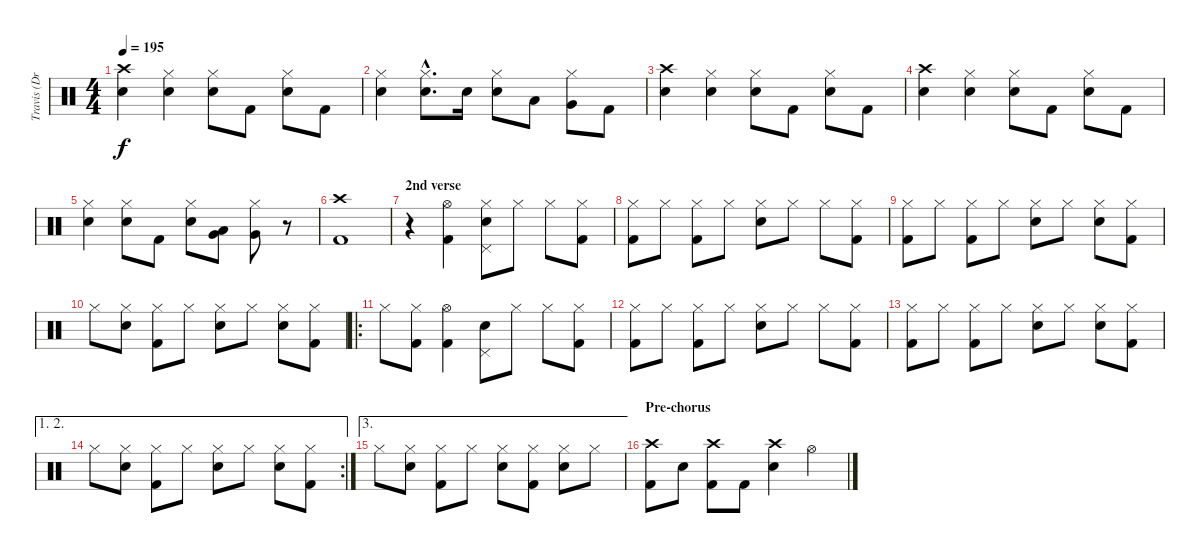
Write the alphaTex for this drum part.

\track ("Travis (Drums)" "Travis (Dr") {instrument percussion}
\staff {score}
\articulation defaults
\ts (4 4)
\tempo 195
\clef neutral
\ks c
("Crash high (hit)" "Electric Snare (hit)").4{dy f} ("Hi-Hat (closed)" "Electric Snare (hit)").4 ("Hi-Hat (closed)" "Electric Snare (hit)").8 "Kick (hit) 2".8 ("Hi-Hat (closed)" "Electric Snare (hit)").8 "Kick (hit) 2".8 |
("Hi-Hat (closed)" "Electric Snare (hit)").4 ("Hi-Hat (closed)"{hac} "Electric Snare (hit)"{hac}).8{d} "Electric Snare (hit)".16 ("Hi-Hat (closed)" "Electric Snare (hit)").8 "Low Tom (hit)".8 ("Very Low Tom (hit)" "Hi-Hat (closed)").8 "Kick (hit) 2".8 |
("Crash high (hit)" "Electric Snare (hit)").4 ("Hi-Hat (closed)" "Electric Snare (hit)").4 ("Hi-Hat (closed)" "Electric Snare (hit)").8 "Kick (hit) 2".8 ("Hi-Hat (closed)" "Electric Snare (hit)").8 "Kick (hit) 2".8 |
("Crash high (hit)" "Electric Snare (hit)").4 ("Hi-Hat (closed)" "Electric Snare (hit)").4 ("Hi-Hat (closed)" "Electric Snare (hit)").8 "Kick (hit) 2".8 ("Hi-Hat (closed)" "Electric Snare (hit)").8 "Kick (hit) 2".8 |
("Hi-Hat (closed)" "Electric Snare (hit)").4 ("Hi-Hat (closed)" "Electric Snare (hit)").8 "Kick (hit) 2".8 ("Hi-Hat (closed)" "Electric Snare (hit)").8 ("Low Tom (hit)" "Very Low Tom (hit)").8 ("Very Low Tom (hit)" "Hi-Hat (closed)").8 r.8 |
("Crash high (hit)" "Kick (hit) 2").1 |
\section ("" "2nd verse")
r.4 ("Hi-Hat (open)" "Kick (hit) 2").4 ("Pedal Hi-Hat (hit)" "Hi-Hat (closed)" "Electric Snare (hit)").8 "Hi-Hat (closed)".8 "Hi-Hat (closed)".8 ("Hi-Hat (closed)" "Kick (hit) 2").8 |
("Hi-Hat (closed)" "Kick (hit) 2").8 "Hi-Hat (closed)".8 ("Hi-Hat (closed)" "Kick (hit) 2").8 "Hi-Hat (closed)".8 ("Hi-Hat (closed)" "Electric Snare (hit)").8 "Hi-Hat (closed)".8 "Hi-Hat (closed)".8 ("Hi-Hat (closed)" "Kick (hit) 2").8 |
("Hi-Hat (closed)" "Kick (hit) 2").8 "Hi-Hat (closed)".8 ("Hi-Hat (closed)" "Kick (hit) 2").8 "Hi-Hat (closed)".8 ("Hi-Hat (closed)" "Electric Snare (hit)").8 "Hi-Hat (closed)".8 ("Hi-Hat (closed)" "Electric Snare (hit)").8 ("Hi-Hat (closed)" "Kick (hit) 2").8 |
"Hi-Hat (closed)".8 ("Hi-Hat (closed)" "Electric Snare (hit)").8 ("Hi-Hat (closed)" "Kick (hit) 2").8 "Hi-Hat (closed)".8 ("Hi-Hat (closed)" "Electric Snare (hit)").8 "Hi-Hat (closed)".8 ("Hi-Hat (closed)" "Electric Snare (hit)").8 ("Hi-Hat (closed)" "Kick (hit) 2").8 |
\ro "Hi-Hat (closed)".8
("Hi-Hat (closed)" "Kick (hit) 2").8 ("Hi-Hat (open)" "Kick (hit) 2").4 ("Pedal Hi-Hat (hit)" "Electric Snare (hit)").8 "Hi-Hat (closed)".8 "Hi-Hat (closed)".8 ("Hi-Hat (closed)" "Kick (hit) 2").8 |
("Hi-Hat (closed)" "Kick (hit) 2").8 "Hi-Hat (closed)".8 ("Hi-Hat (closed)" "Kick (hit) 2").8 "Hi-Hat (closed)".8 ("Hi-Hat (closed)" "Electric Snare (hit)").8 "Hi-Hat (closed)".8 "Hi-Hat (closed)".8 ("Hi-Hat (closed)" "Kick (hit) 2").8 |
("Hi-Hat (closed)" "Kick (hit) 2").8 "Hi-Hat (closed)".8 ("Hi-Hat (closed)" "Kick (hit) 2").8 "Hi-Hat (closed)".8 ("Hi-Hat (closed)" "Electric Snare (hit)").8 "Hi-Hat (closed)".8 ("Hi-Hat (closed)" "Electric Snare (hit)").8 ("Hi-Hat (closed)" "Kick (hit) 2").8 |
\ae (1 2)
\rc 2 "Hi-Hat (closed)".8
("Hi-Hat (closed)" "Electric Snare (hit)").8 ("Hi-Hat (closed)" "Kick (hit) 2").8 "Hi-Hat (closed)".8 ("Hi-Hat (closed)" "Electric Snare (hit)").8 "Hi-Hat (closed)".8 ("Hi-Hat (closed)" "Electric Snare (hit)").8 ("Hi-Hat (closed)" "Kick (hit) 2").8 |
\ae 3 "Hi-Hat (closed)".8
("Hi-Hat (closed)" "Electric Snare (hit)").8 ("Hi-Hat (closed)" "Kick (hit) 2").8 "Hi-Hat (closed)".8 ("Hi-Hat (closed)" "Electric Snare (hit)").8 ("Hi-Hat (closed)" "Kick (hit) 2").8 ("Hi-Hat (closed)" "Electric Snare (hit)").8 "Hi-Hat (closed)".8 |
\section ("" "Pre-chorus")
("Crash high (hit)" "Kick (hit) 2").8 "Electric Snare (hit)".8 ("Crash high (hit)" "Kick (hit) 2").8 "Kick (hit) 2".8 ("Crash high (hit)" "Electric Snare (hit)").4 "Hi-Hat (open)".4
